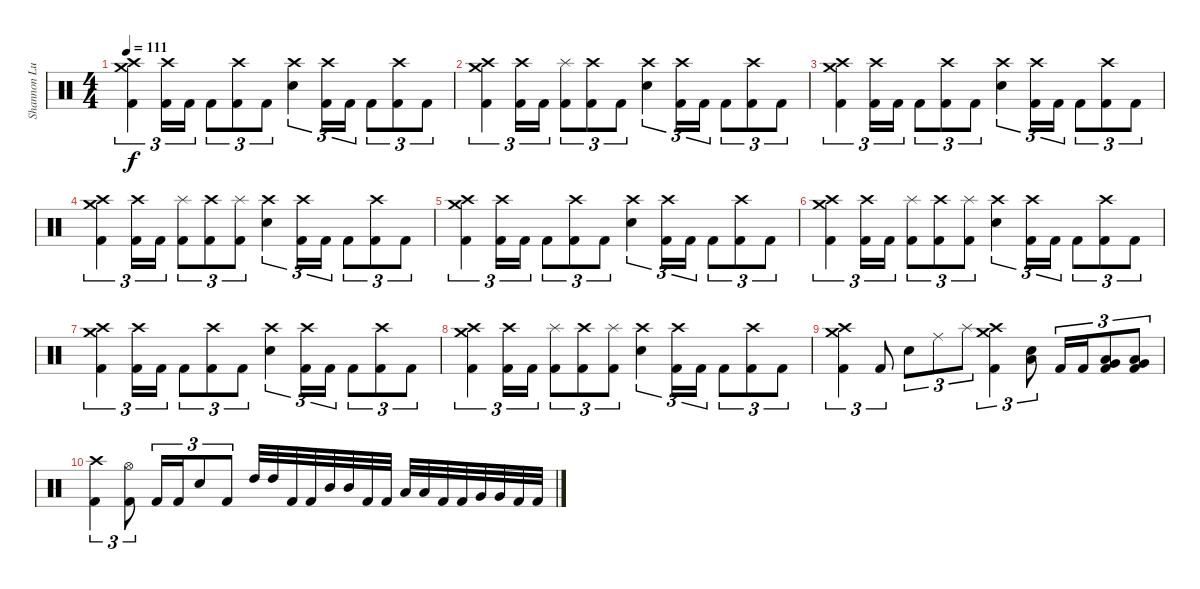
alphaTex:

\track ("Shannon Lucas (Drums)" "Shannon Lu") {instrument percussion}
\staff {score}
\articulation defaults
\ts (4 4)
\tempo 111
\clef neutral
\ks c
("Crash medium (hit)" "Crash high (hit)" "Kick (hit) 2").4{tu (3 2) dy f} ("Crash high (hit)" "Kick (hit) 2").16{tu (3 2)} "Kick (hit) 2".16{tu (3 2)} "Kick (hit) 2".8{tu (3 2)} ("Crash high (hit)" "Kick (hit) 2").8{tu (3 2)} "Kick (hit) 2".8{tu (3 2)} ("Crash high (hit)" "Snare (hit) 2").4{tu (3 2)} ("Crash high (hit)" "Kick (hit) 2").16{tu (3 2)} "Kick (hit) 2".16{tu (3 2)} "Kick (hit) 2".8{tu (3 2)} ("Crash high (hit)" "Kick (hit) 2").8{tu (3 2)} "Kick (hit) 2".8{tu (3 2)} |
("Crash medium (hit)" "Crash high (hit)" "Kick (hit) 2").4{tu (3 2)} ("Crash high (hit)" "Kick (hit) 2").16{tu (3 2)} "Kick (hit) 2".16{tu (3 2)} ("Splash (hit)" "Kick (hit) 2").8{tu (3 2)} ("Crash high (hit)" "Kick (hit) 2").8{tu (3 2)} "Kick (hit) 2".8{tu (3 2)} ("Crash high (hit)" "Snare (hit) 2").4{tu (3 2)} ("Crash high (hit)" "Kick (hit) 2").16{tu (3 2)} "Kick (hit) 2".16{tu (3 2)} "Kick (hit) 2".8{tu (3 2)} ("Crash high (hit)" "Kick (hit) 2").8{tu (3 2)} "Kick (hit) 2".8{tu (3 2)} |
("Crash medium (hit)" "Crash high (hit)" "Kick (hit) 2").4{tu (3 2)} ("Crash high (hit)" "Kick (hit) 2").16{tu (3 2)} "Kick (hit) 2".16{tu (3 2)} "Kick (hit) 2".8{tu (3 2)} ("Crash high (hit)" "Kick (hit) 2").8{tu (3 2)} "Kick (hit) 2".8{tu (3 2)} ("Crash high (hit)" "Snare (hit) 2").4{tu (3 2)} ("Crash high (hit)" "Kick (hit) 2").16{tu (3 2)} "Kick (hit) 2".16{tu (3 2)} "Kick (hit) 2".8{tu (3 2)} ("Crash high (hit)" "Kick (hit) 2").8{tu (3 2)} "Kick (hit) 2".8{tu (3 2)} |
("Crash medium (hit)" "Crash high (hit)" "Kick (hit) 2").4{tu (3 2)} ("Crash high (hit)" "Kick (hit) 2").16{tu (3 2)} "Kick (hit) 2".16{tu (3 2)} ("Splash (hit)" "Kick (hit) 2").8{tu (3 2)} ("Crash high (hit)" "Kick (hit) 2").8{tu (3 2)} ("Splash (hit)" "Kick (hit) 2").8{tu (3 2)} ("Crash high (hit)" "Snare (hit) 2").4{tu (3 2)} ("Crash high (hit)" "Kick (hit) 2").16{tu (3 2)} "Kick (hit) 2".16{tu (3 2)} "Kick (hit) 2".8{tu (3 2)} ("Crash high (hit)" "Kick (hit) 2").8{tu (3 2)} "Kick (hit) 2".8{tu (3 2)} |
("Crash medium (hit)" "Crash high (hit)" "Kick (hit) 2").4{tu (3 2)} ("Crash high (hit)" "Kick (hit) 2").16{tu (3 2)} "Kick (hit) 2".16{tu (3 2)} "Kick (hit) 2".8{tu (3 2)} ("Crash high (hit)" "Kick (hit) 2").8{tu (3 2)} "Kick (hit) 2".8{tu (3 2)} ("Crash high (hit)" "Snare (hit) 2").4{tu (3 2)} ("Crash high (hit)" "Kick (hit) 2").16{tu (3 2)} "Kick (hit) 2".16{tu (3 2)} "Kick (hit) 2".8{tu (3 2)} ("Crash high (hit)" "Kick (hit) 2").8{tu (3 2)} "Kick (hit) 2".8{tu (3 2)} |
("Crash medium (hit)" "Crash high (hit)" "Kick (hit) 2").4{tu (3 2)} ("Crash high (hit)" "Kick (hit) 2").16{tu (3 2)} "Kick (hit) 2".16{tu (3 2)} ("Splash (hit)" "Kick (hit) 2").8{tu (3 2)} ("Crash high (hit)" "Kick (hit) 2").8{tu (3 2)} ("Splash (hit)" "Kick (hit) 2").8{tu (3 2)} ("Crash high (hit)" "Snare (hit) 2").4{tu (3 2)} ("Crash high (hit)" "Kick (hit) 2").16{tu (3 2)} "Kick (hit) 2".16{tu (3 2)} "Kick (hit) 2".8{tu (3 2)} ("Crash high (hit)" "Kick (hit) 2").8{tu (3 2)} "Kick (hit) 2".8{tu (3 2)} |
("Crash medium (hit)" "Crash high (hit)" "Kick (hit) 2").4{tu (3 2)} ("Crash high (hit)" "Kick (hit) 2").16{tu (3 2)} "Kick (hit) 2".16{tu (3 2)} "Kick (hit) 2".8{tu (3 2)} ("Crash high (hit)" "Kick (hit) 2").8{tu (3 2)} "Kick (hit) 2".8{tu (3 2)} ("Crash high (hit)" "Snare (hit) 2").4{tu (3 2)} ("Crash high (hit)" "Kick (hit) 2").16{tu (3 2)} "Kick (hit) 2".16{tu (3 2)} "Kick (hit) 2".8{tu (3 2)} ("Crash high (hit)" "Kick (hit) 2").8{tu (3 2)} "Kick (hit) 2".8{tu (3 2)} |
("Crash medium (hit)" "Crash high (hit)" "Kick (hit) 2").4{tu (3 2)} ("Crash high (hit)" "Kick (hit) 2").16{tu (3 2)} "Kick (hit) 2".16{tu (3 2)} ("Splash (hit)" "Kick (hit) 2").8{tu (3 2)} ("Crash high (hit)" "Kick (hit) 2").8{tu (3 2)} ("Splash (hit)" "Kick (hit) 2").8{tu (3 2)} ("Crash high (hit)" "Snare (hit) 2").4{tu (3 2)} ("Crash high (hit)" "Kick (hit) 2").16{tu (3 2)} "Kick (hit) 2".16{tu (3 2)} "Kick (hit) 2".8{tu (3 2)} ("Crash high (hit)" "Kick (hit) 2").8{tu (3 2)} "Kick (hit) 2".8{tu (3 2)} |
("Crash high (hit)" "Crash medium (hit)" "Kick (hit) 2").4{tu (3 2)} "Kick (hit) 2".8{tu (3 2)} "Snare (hit) 2".8{tu (3 2)} "Ride (middle)".8{tu (3 2)} "Splash (hit)".8{tu (3 2)} ("Crash high (hit)" "Crash medium (hit)" "Kick (hit) 2").4{tu (3 2)} ("Low Floor Tom (hit)" "Snare (hit) 2").8{tu (3 2)} "Kick (hit) 2".16{tu (3 2)} "Kick (hit) 2".16{tu (3 2)} ("Low Tom (hit)" "Very Low Tom (hit)" "Kick (hit) 2").8{tu (3 2)} ("Very Low Tom (hit)" "Low Floor Tom (hit)" "Kick (hit) 2").8{tu (3 2)} |
("Crash high (hit)" "Kick (hit) 2").4{tu (3 2)} ("Hi-Hat (open)" "Kick (hit) 2").8{tu (3 2)} "Kick (hit) 2".16{tu (3 2)} "Kick (hit) 2".16{tu (3 2)} "Snare (hit) 2".8{tu (3 2)} "Kick (hit) 2".8{tu (3 2)} "High Tom (hit)".32 "High Tom (hit)".32 "Kick (hit) 2".32 "Kick (hit) 2".32 "Mid Tom (hit)".32 "Mid Tom (hit)".32 "Kick (hit) 2".32 "Kick (hit) 2".32 "Low Tom (hit)".32 "Low Tom (hit)".32 "Kick (hit) 2".32 "Kick (hit) 2".32 "Very Low Tom (hit)".32 "Very Low Tom (hit)".32 "Kick (hit) 2".32 "Kick (hit) 2".32
